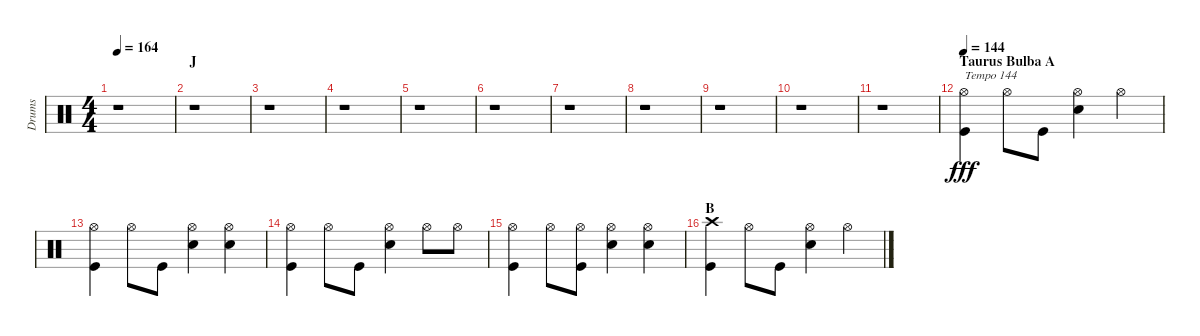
\track ("Drums" "Drums") {instrument percussion}
\staff {score}
\articulation defaults
\ts (4 4)
\tempo 164
\clef neutral
\ks c
r.1{dy fff} |
\section ("" "J")
r.1 |
r.1 |
r.1 |
r.1 |
r.1 |
r.1 |
r.1 |
r.1 |
r.1 |
r.1 |
\section ("" "Taurus Bulba A")
\tempo 144
("Hi-Hat (open)" "Kick (hit)").4{txt "Tempo 144"} "Hi-Hat (open)".8 "Kick (hit)".8 ("Hi-Hat (open)" "Snare (hit) 2").4 "Hi-Hat (open)".4 |
("Hi-Hat (open)" "Kick (hit)").4 "Hi-Hat (open)".8 "Kick (hit)".8 ("Hi-Hat (open)" "Snare (hit) 2").4 ("Hi-Hat (open)" "Snare (hit) 2").4 |
("Hi-Hat (open)" "Kick (hit)").4 "Hi-Hat (open)".8 "Kick (hit)".8 ("Hi-Hat (open)" "Snare (hit) 2").4 "Hi-Hat (open)".8 "Hi-Hat (open)".8 |
("Hi-Hat (open)" "Kick (hit)").4 "Hi-Hat (open)".8 ("Hi-Hat (open)" "Kick (hit)").8 ("Hi-Hat (open)" "Snare (hit) 2").4 ("Hi-Hat (open)" "Snare (hit) 2").4 |
\section ("" "B")
("Crash high (hit)" "Kick (hit)").4 "Hi-Hat (open)".8 "Kick (hit)".8 ("Hi-Hat (open)" "Snare (hit) 2").4 "Hi-Hat (open)".4
